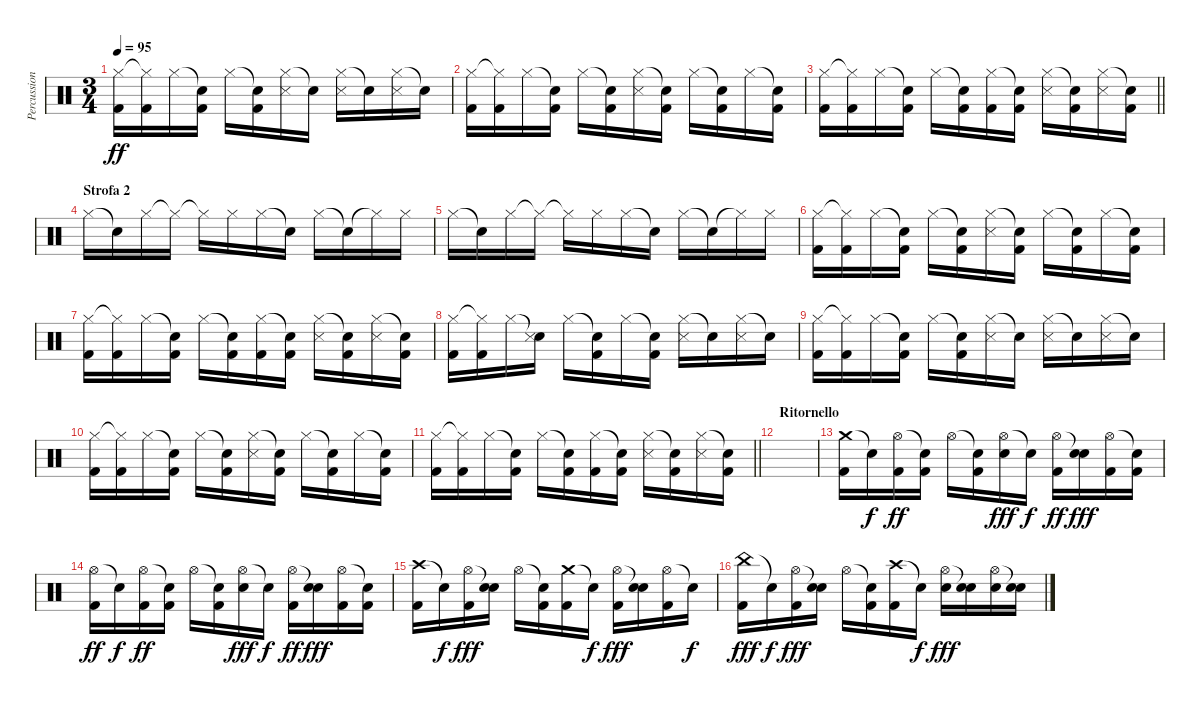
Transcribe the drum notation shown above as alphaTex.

\track ("Percussioni" "Percussion") {instrument percussion}
\staff {score}
\articulation defaults
\ts (3 4)
\tempo 95
\clef neutral
\ks c
("Hi-Hat (closed)" "Kick (hit) 2").16{dy ff} ("Hi-Hat (closed)"{t} "Kick (hit) 2").16 "Hi-Hat (closed)".16 ("Snare (hit)"{t} "Kick (hit) 2").16 "Hi-Hat (closed)".16 ("Snare (hit)"{t} "Kick (hit) 2").16 ("Hi-Hat (closed)" "Snare (side stick) 3").16 "Snare (hit)"{t}.16 ("Hi-Hat (closed)" "Snare (side stick) 3").16 "Snare (hit)"{t}.16 ("Hi-Hat (closed)" "Snare (side stick) 3").16 "Snare (hit)"{t}.16 |
("Hi-Hat (closed)" "Kick (hit) 2").16 ("Hi-Hat (closed)"{t} "Kick (hit) 2").16 "Hi-Hat (closed)".16 ("Snare (hit)"{t} "Kick (hit) 2").16 "Hi-Hat (closed)".16 ("Snare (hit)"{t} "Kick (hit) 2").16 ("Hi-Hat (closed)" "Snare (side stick) 3").16 ("Snare (hit)"{t} "Kick (hit) 2").16 "Hi-Hat (closed)".16 ("Snare (hit)"{t} "Kick (hit) 2").16 "Hi-Hat (closed)".16 ("Snare (hit)"{t} "Kick (hit) 2").16 |
\barLineRight lightlight
("Hi-Hat (closed)" "Kick (hit) 2").16 ("Hi-Hat (closed)"{t} "Kick (hit) 2").16 "Hi-Hat (closed)".16 ("Snare (hit)"{t} "Kick (hit) 2").16 "Hi-Hat (closed)".16 ("Snare (hit)"{t} "Kick (hit) 2").16 ("Hi-Hat (closed)" "Kick (hit) 2").16 ("Snare (hit)"{t} "Kick (hit) 2").16 ("Hi-Hat (closed)" "Snare (side stick) 3").16 ("Snare (hit)"{t} "Kick (hit) 2").16 ("Hi-Hat (closed)" "Snare (side stick) 3").16 ("Snare (hit)"{t} "Kick (hit) 2").16 |
\section ("" "Strofa 2")
"Hi-Hat (closed)".16 "Snare (hit)"{t}.16 "Hi-Hat (closed)".16 "Hi-Hat (closed)"{t}.16 "Hi-Hat (closed)"{t}.16 "Hi-Hat (closed)".16 "Hi-Hat (closed)".16 "Snare (hit)"{t}.16 "Hi-Hat (closed)".16 "Snare (hit)"{t}.16 "Hi-Hat (closed)"{t}.16 "Hi-Hat (closed)".16 |
"Hi-Hat (closed)".16 "Snare (hit)"{t}.16 "Hi-Hat (closed)".16 "Hi-Hat (closed)"{t}.16 "Hi-Hat (closed)"{t}.16 "Hi-Hat (closed)".16 "Hi-Hat (closed)".16 "Snare (hit)"{t}.16 "Hi-Hat (closed)".16 "Snare (hit)"{t}.16 "Hi-Hat (closed)"{t}.16 "Hi-Hat (closed)".16 |
("Hi-Hat (closed)" "Kick (hit) 2").16 ("Hi-Hat (closed)"{t} "Kick (hit) 2").16 "Hi-Hat (closed)".16 ("Snare (hit)"{t} "Kick (hit) 2").16 "Hi-Hat (closed)".16 ("Snare (hit)"{t} "Kick (hit) 2").16 ("Hi-Hat (closed)" "Snare (side stick) 3").16 ("Snare (hit)"{t} "Kick (hit) 2").16 "Hi-Hat (closed)".16 ("Snare (hit)"{t} "Kick (hit) 2").16 "Hi-Hat (closed)".16 ("Snare (hit)"{t} "Kick (hit) 2").16 |
("Hi-Hat (closed)" "Kick (hit) 2").16 ("Hi-Hat (closed)"{t} "Kick (hit) 2").16 "Hi-Hat (closed)".16 ("Snare (hit)"{t} "Kick (hit) 2").16 "Hi-Hat (closed)".16 ("Snare (hit)"{t} "Kick (hit) 2").16 ("Hi-Hat (closed)" "Kick (hit) 2").16 ("Snare (hit)"{t} "Kick (hit) 2").16 ("Hi-Hat (closed)" "Snare (side stick) 3").16 ("Snare (hit)"{t} "Kick (hit) 2").16 ("Hi-Hat (closed)" "Snare (side stick) 3").16 ("Snare (hit)"{t} "Kick (hit) 2").16 |
("Hi-Hat (closed)" "Kick (hit) 2").16 ("Hi-Hat (closed)"{t} "Kick (hit) 2").16 "Hi-Hat (closed)".16 ("Snare (hit)"{t} "Snare (side stick) 3").16 "Hi-Hat (closed)".16 ("Snare (hit)"{t} "Kick (hit) 2").16 "Hi-Hat (closed)".16 ("Snare (hit)"{t} "Kick (hit) 2").16 ("Hi-Hat (closed)" "Snare (side stick) 3").16 "Snare (hit)"{t}.16 ("Hi-Hat (closed)" "Snare (side stick) 3").16 "Snare (hit)"{t}.16 |
("Hi-Hat (closed)" "Kick (hit) 2").16 ("Hi-Hat (closed)"{t} "Kick (hit) 2").16 "Hi-Hat (closed)".16 ("Snare (hit)"{t} "Kick (hit) 2").16 "Hi-Hat (closed)".16 ("Snare (hit)"{t} "Kick (hit) 2").16 ("Hi-Hat (closed)" "Snare (side stick) 3").16 "Snare (hit)"{t}.16 ("Hi-Hat (closed)" "Snare (side stick) 3").16 "Snare (hit)"{t}.16 ("Hi-Hat (closed)" "Snare (side stick) 3").16 "Snare (hit)"{t}.16 |
("Hi-Hat (closed)" "Kick (hit) 2").16 ("Hi-Hat (closed)"{t} "Kick (hit) 2").16 "Hi-Hat (closed)".16 ("Snare (hit)"{t} "Kick (hit) 2").16 "Hi-Hat (closed)".16 ("Snare (hit)"{t} "Kick (hit) 2").16 ("Hi-Hat (closed)" "Snare (side stick) 3").16 ("Snare (hit)"{t} "Kick (hit) 2").16 "Hi-Hat (closed)".16 ("Snare (hit)"{t} "Kick (hit) 2").16 "Hi-Hat (closed)".16 ("Snare (hit)"{t} "Kick (hit) 2").16 |
\barLineRight lightlight
("Hi-Hat (closed)" "Kick (hit) 2").16 ("Hi-Hat (closed)"{t} "Kick (hit) 2").16 "Hi-Hat (closed)".16 ("Snare (hit)"{t} "Kick (hit) 2").16 "Hi-Hat (closed)".16 ("Snare (hit)"{t} "Kick (hit) 2").16 ("Hi-Hat (closed)" "Kick (hit) 2").16 ("Snare (hit)"{t} "Kick (hit) 2").16 ("Hi-Hat (closed)" "Snare (side stick) 3").16 ("Snare (hit)"{t} "Kick (hit) 2").16 ("Hi-Hat (closed)" "Snare (side stick) 3").16 ("Snare (hit)"{t} "Kick (hit) 2").16 |
\section ("" "Ritornello")
|
("Crash medium (hit)" "Kick (hit) 2").16 "Snare (hit)"{t}.16{dy f} ("Hi-Hat (open)" "Kick (hit) 2").16{dy ff} ("Snare (hit)"{t} "Kick (hit) 2").16 "Hi-Hat (open)".16 ("Snare (hit)"{t} "Kick (hit) 2").16 ("Hi-Hat (open)" "Electric Snare (hit)").16{dy fff} "Snare (hit)"{t}.16{dy f} ("Hi-Hat (open)" "Kick (hit) 2").16{dy ff} ("Snare (hit)"{t} "Electric Snare (hit)").16{dy fff} ("Hi-Hat (open)" "Kick (hit) 2").16 ("Snare (hit)"{t} "Kick (hit) 2").16 |
("Hi-Hat (open)" "Kick (hit) 2").16{dy ff} "Snare (hit)"{t}.16{dy f} ("Hi-Hat (open)" "Kick (hit) 2").16{dy ff} ("Snare (hit)"{t} "Kick (hit) 2").16 "Hi-Hat (open)".16 ("Snare (hit)"{t} "Kick (hit) 2").16 ("Hi-Hat (open)" "Electric Snare (hit)").16{dy fff} "Snare (hit)"{t}.16{dy f} ("Hi-Hat (open)" "Kick (hit) 2").16{dy ff} ("Snare (hit)"{t} "Electric Snare (hit)").16{dy fff} ("Hi-Hat (open)" "Kick (hit) 2").16 ("Snare (hit)"{t} "Kick (hit) 2").16 |
("Crash high (hit)" "Kick (hit) 2").16 "Snare (hit)"{t}.16{dy f} ("Hi-Hat (open)" "Kick (hit) 2").16{dy fff} ("Snare (hit)"{t} "Electric Snare (hit)").16 "Hi-Hat (open)".16 ("Snare (hit)"{t} "Kick (hit) 2").16 ("Crash medium (hit)" "Kick (hit) 2").16 "Snare (hit)"{t}.16{dy f} ("Hi-Hat (open)" "Kick (hit) 2").16{dy fff} ("Snare (hit)"{t} "Electric Snare (hit)").16 ("Hi-Hat (open)" "Kick (hit) 2").16 "Snare (hit)"{t}.16{dy f} |
("China (hit)" "Kick (hit) 2").16{dy fff} "Snare (hit)"{t}.16{dy f} ("Hi-Hat (open)" "Kick (hit) 2").16{dy fff} ("Snare (hit)"{t} "Electric Snare (hit)").16 "Hi-Hat (open)".16 ("Snare (hit)"{t} "Kick (hit) 2").16 ("Crash high (hit)" "Kick (hit) 2").16 "Snare (hit)"{t}.16{dy f} ("Hi-Hat (open)" "Electric Snare (hit)").16{dy fff} ("Snare (hit)"{t} "Electric Snare (hit)").16 ("Hi-Hat (open)" "Electric Snare (hit)").16 ("Snare (hit)"{t} "Electric Snare (hit)").16
